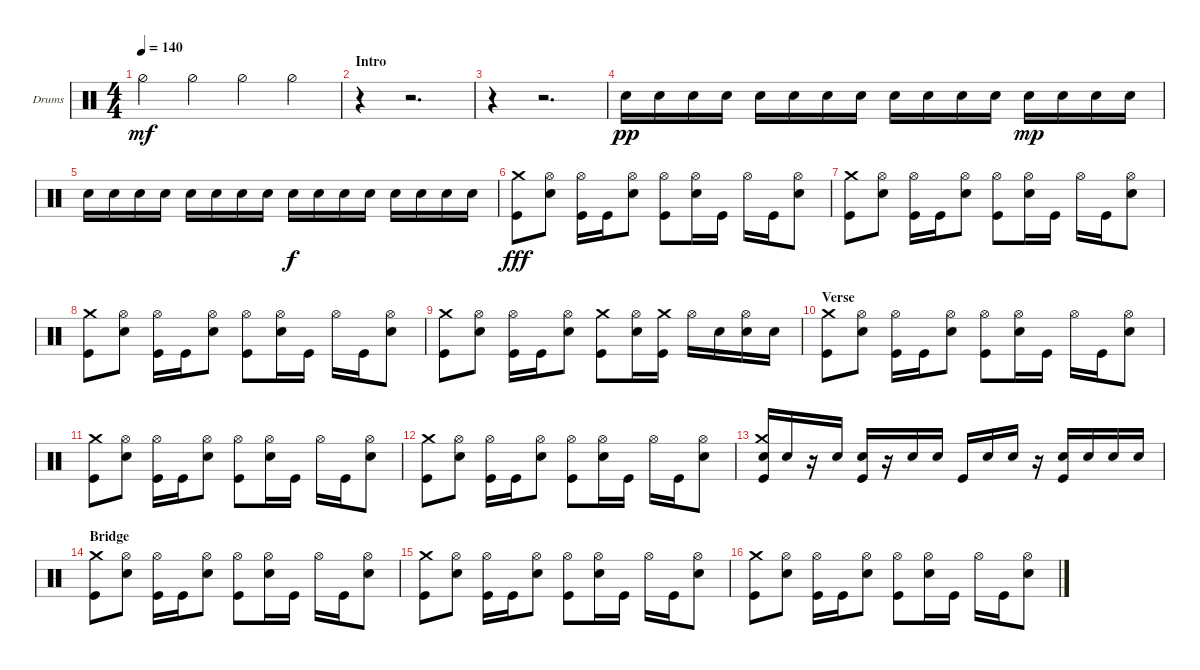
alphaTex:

\defaultSystemsLayout 4
\bracketExtendMode nobrackets
\firstSystemTrackNameOrientation horizontal
\otherSystemsTrackNameOrientation horizontal
\track ("Phil Taylor" "Drums") {instrument percussion}
\staff {score}
\articulation defaults
\ts (4 4)
\tempo 140
\clef neutral
\ks c "Hi-Hat (half)".4{dy mf} "Hi-Hat (half)".4 "Hi-Hat (half)".4 "Hi-Hat (half)".4
|
\section ("" "Intro")
r.4 r.2{d} |
r.4 r.2{d} |
"Snare (hit) 2".16{dy pp} "Snare (hit) 2".16 "Snare (hit) 2".16 "Snare (hit) 2".16 "Snare (hit) 2".16 "Snare (hit) 2".16 "Snare (hit) 2".16 "Snare (hit) 2".16 "Snare (hit) 2".16 "Snare (hit) 2".16 "Snare (hit) 2".16 "Snare (hit) 2".16 "Snare (hit) 2".16{dy mp} "Snare (hit) 2".16 "Snare (hit) 2".16 "Snare (hit) 2".16 |
"Snare (hit) 2".16 "Snare (hit) 2".16 "Snare (hit) 2".16 "Snare (hit) 2".16 "Snare (hit) 2".16 "Snare (hit) 2".16 "Snare (hit) 2".16 "Snare (hit) 2".16 "Snare (hit) 2".16{dy f} "Snare (hit) 2".16 "Snare (hit) 2".16 "Snare (hit) 2".16 "Snare (hit) 2".16 "Snare (hit) 2".16 "Snare (hit) 2".16 "Snare (hit) 2".16 |
("Crash medium (hit)" "Kick (hit)").8{dy fff} ("Hi-Hat (open)" "Snare (hit) 2").8 ("Hi-Hat (open)" "Kick (hit)").16 "Kick (hit)".16 ("Hi-Hat (open)" "Snare (hit) 2").8 ("Hi-Hat (open)" "Kick (hit)").8 ("Hi-Hat (open)" "Snare (hit) 2").16 "Kick (hit)".16 "Hi-Hat (open)".16 "Kick (hit)".16 ("Hi-Hat (open)" "Snare (hit) 2").8 |
("Crash medium (hit)" "Kick (hit)").8 ("Hi-Hat (open)" "Snare (hit) 2").8 ("Hi-Hat (open)" "Kick (hit)").16 "Kick (hit)".16 ("Hi-Hat (open)" "Snare (hit) 2").8 ("Hi-Hat (open)" "Kick (hit)").8 ("Hi-Hat (open)" "Snare (hit) 2").16 "Kick (hit)".16 "Hi-Hat (open)".16 "Kick (hit)".16 ("Hi-Hat (open)" "Snare (hit) 2").8 |
("Crash medium (hit)" "Kick (hit)").8 ("Hi-Hat (open)" "Snare (hit) 2").8 ("Hi-Hat (open)" "Kick (hit)").16 "Kick (hit)".16 ("Hi-Hat (open)" "Snare (hit) 2").8 ("Hi-Hat (open)" "Kick (hit)").8 ("Hi-Hat (open)" "Snare (hit) 2").16 "Kick (hit)".16 "Hi-Hat (open)".16 "Kick (hit)".16 ("Hi-Hat (open)" "Snare (hit) 2").8 |
("Crash medium (hit)" "Kick (hit)").8 ("Hi-Hat (open)" "Snare (hit) 2").8 ("Hi-Hat (open)" "Kick (hit)").16 "Kick (hit)".16 ("Hi-Hat (open)" "Snare (hit) 2").8 ("Crash medium (hit)" "Kick (hit)").8 ("Hi-Hat (open)" "Snare (hit) 2").16 ("Crash medium (hit)" "Kick (hit)").16 "Hi-Hat (open)".16 "Snare (hit) 2".16 ("Hi-Hat (open)" "Snare (hit) 2").16 "Snare (hit) 2".16 |
\section ("" "Verse")
("Crash medium (hit)" "Kick (hit)").8 ("Hi-Hat (open)" "Snare (hit) 2").8 ("Hi-Hat (open)" "Kick (hit)").16 "Kick (hit)".16 ("Hi-Hat (open)" "Snare (hit) 2").8 ("Hi-Hat (open)" "Kick (hit)").8 ("Hi-Hat (open)" "Snare (hit) 2").16 "Kick (hit)".16 "Hi-Hat (open)".16 "Kick (hit)".16 ("Hi-Hat (open)" "Snare (hit) 2").8 |
("Crash medium (hit)" "Kick (hit)").8 ("Hi-Hat (open)" "Snare (hit) 2").8 ("Hi-Hat (open)" "Kick (hit)").16 "Kick (hit)".16 ("Hi-Hat (open)" "Snare (hit) 2").8 ("Hi-Hat (open)" "Kick (hit)").8 ("Hi-Hat (open)" "Snare (hit) 2").16 "Kick (hit)".16 "Hi-Hat (open)".16 "Kick (hit)".16 ("Hi-Hat (open)" "Snare (hit) 2").8 |
("Crash medium (hit)" "Kick (hit)").8 ("Hi-Hat (open)" "Snare (hit) 2").8 ("Hi-Hat (open)" "Kick (hit)").16 "Kick (hit)".16 ("Hi-Hat (open)" "Snare (hit) 2").8 ("Hi-Hat (open)" "Kick (hit)").8 ("Hi-Hat (open)" "Snare (hit) 2").16 "Kick (hit)".16 "Hi-Hat (open)".16 "Kick (hit)".16 ("Hi-Hat (open)" "Snare (hit) 2").8 |
("Crash medium (hit)" "Snare (hit) 2" "Kick (hit)").16 "Snare (hit) 2".16 r.16 "Snare (hit) 2".16 ("Snare (hit) 2" "Kick (hit)").16 r.16 "Snare (hit) 2".16 "Snare (hit) 2".16 "Kick (hit)".16 "Snare (hit) 2".16 "Snare (hit) 2".16 r.16 ("Snare (hit) 2" "Kick (hit)").16 "Snare (hit) 2".16 "Snare (hit) 2".16 "Snare (hit) 2".16 |
\section ("" "Bridge")
("Crash medium (hit)" "Kick (hit)").8 ("Hi-Hat (open)" "Snare (hit) 2").8 ("Hi-Hat (open)" "Kick (hit)").16 "Kick (hit)".16 ("Hi-Hat (open)" "Snare (hit) 2").8 ("Hi-Hat (open)" "Kick (hit)").8 ("Hi-Hat (open)" "Snare (hit) 2").16 "Kick (hit)".16 "Hi-Hat (open)".16 "Kick (hit)".16 ("Hi-Hat (open)" "Snare (hit) 2").8 |
("Crash medium (hit)" "Kick (hit)").8 ("Hi-Hat (open)" "Snare (hit) 2").8 ("Hi-Hat (open)" "Kick (hit)").16 "Kick (hit)".16 ("Hi-Hat (open)" "Snare (hit) 2").8 ("Hi-Hat (open)" "Kick (hit)").8 ("Hi-Hat (open)" "Snare (hit) 2").16 "Kick (hit)".16 "Hi-Hat (open)".16 "Kick (hit)".16 ("Hi-Hat (open)" "Snare (hit) 2").8 |
("Crash medium (hit)" "Kick (hit)").8 ("Hi-Hat (open)" "Snare (hit) 2").8 ("Hi-Hat (open)" "Kick (hit)").16 "Kick (hit)".16 ("Hi-Hat (open)" "Snare (hit) 2").8 ("Hi-Hat (open)" "Kick (hit)").8 ("Hi-Hat (open)" "Snare (hit) 2").16 "Kick (hit)".16 "Hi-Hat (open)".16 "Kick (hit)".16 ("Hi-Hat (open)" "Snare (hit) 2").8
